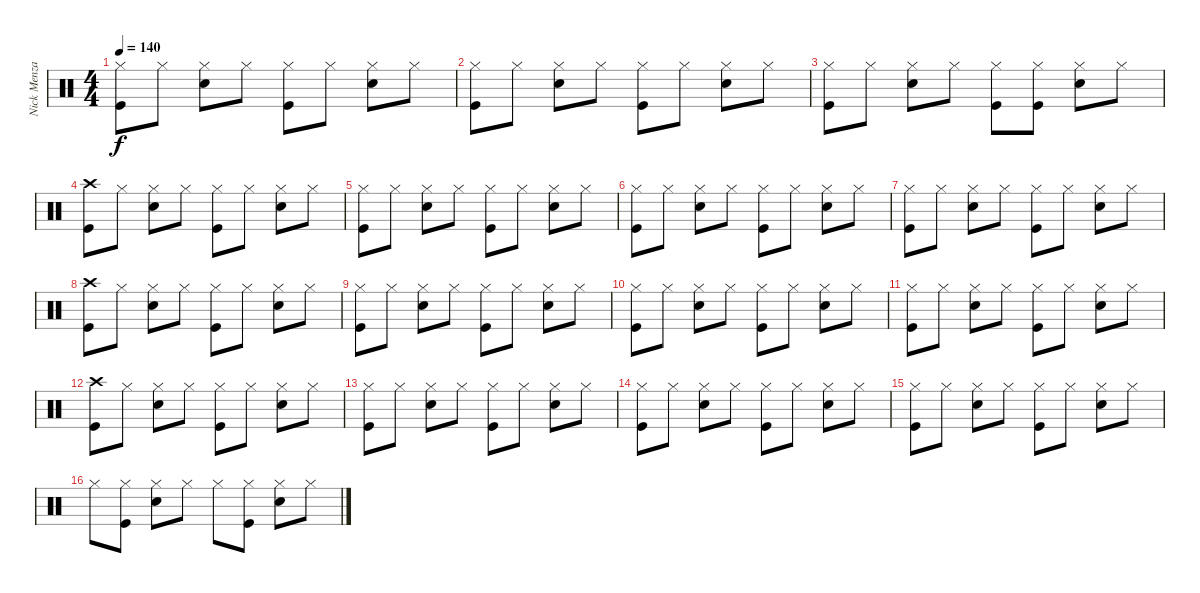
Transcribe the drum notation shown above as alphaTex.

\track ("Nick Menza (Drums)" "Nick Menza") {instrument percussion}
\staff {score}
\articulation defaults
\ts (4 4)
\tempo 140
\clef neutral
\ks c
("Hi-Hat (closed)" "Kick (hit)").8{dy f} "Hi-Hat (closed)".8 ("Hi-Hat (closed)" "Snare (hit) 2").8 "Hi-Hat (closed)".8 ("Hi-Hat (closed)" "Kick (hit)").8 "Hi-Hat (closed)".8 ("Hi-Hat (closed)" "Snare (hit) 2").8 "Hi-Hat (closed)".8 |
("Hi-Hat (closed)" "Kick (hit)").8 "Hi-Hat (closed)".8 ("Hi-Hat (closed)" "Snare (hit) 2").8 "Hi-Hat (closed)".8 ("Hi-Hat (closed)" "Kick (hit)").8 "Hi-Hat (closed)".8 ("Hi-Hat (closed)" "Snare (hit) 2").8 "Hi-Hat (closed)".8 |
("Hi-Hat (closed)" "Kick (hit)").8 "Hi-Hat (closed)".8 ("Hi-Hat (closed)" "Snare (hit) 2").8 "Hi-Hat (closed)".8 ("Hi-Hat (closed)" "Kick (hit)").8 ("Hi-Hat (closed)" "Kick (hit)").8 ("Hi-Hat (closed)" "Snare (hit) 2").8 "Hi-Hat (closed)".8 |
("Crash high (hit)" "Kick (hit)").8 "Hi-Hat (closed)".8 ("Hi-Hat (closed)" "Snare (hit) 2").8 "Hi-Hat (closed)".8 ("Hi-Hat (closed)" "Kick (hit)").8 "Hi-Hat (closed)".8 ("Hi-Hat (closed)" "Snare (hit) 2").8 "Hi-Hat (closed)".8 |
("Hi-Hat (closed)" "Kick (hit)").8 "Hi-Hat (closed)".8 ("Hi-Hat (closed)" "Snare (hit) 2").8 "Hi-Hat (closed)".8 ("Hi-Hat (closed)" "Kick (hit)").8 "Hi-Hat (closed)".8 ("Hi-Hat (closed)" "Snare (hit) 2").8 "Hi-Hat (closed)".8 |
("Hi-Hat (closed)" "Kick (hit)").8 "Hi-Hat (closed)".8 ("Hi-Hat (closed)" "Snare (hit) 2").8 "Hi-Hat (closed)".8 ("Hi-Hat (closed)" "Kick (hit)").8 "Hi-Hat (closed)".8 ("Hi-Hat (closed)" "Snare (hit) 2").8 "Hi-Hat (closed)".8 |
("Hi-Hat (closed)" "Kick (hit)").8 "Hi-Hat (closed)".8 ("Hi-Hat (closed)" "Snare (hit) 2").8 "Hi-Hat (closed)".8 ("Hi-Hat (closed)" "Kick (hit)").8 "Hi-Hat (closed)".8 ("Hi-Hat (closed)" "Snare (hit) 2").8 "Hi-Hat (closed)".8 |
("Crash high (hit)" "Kick (hit)").8 "Hi-Hat (closed)".8 ("Hi-Hat (closed)" "Snare (hit) 2").8 "Hi-Hat (closed)".8 ("Hi-Hat (closed)" "Kick (hit)").8 "Hi-Hat (closed)".8 ("Hi-Hat (closed)" "Snare (hit) 2").8 "Hi-Hat (closed)".8 |
("Hi-Hat (closed)" "Kick (hit)").8 "Hi-Hat (closed)".8 ("Hi-Hat (closed)" "Snare (hit) 2").8 "Hi-Hat (closed)".8 ("Hi-Hat (closed)" "Kick (hit)").8 "Hi-Hat (closed)".8 ("Hi-Hat (closed)" "Snare (hit) 2").8 "Hi-Hat (closed)".8 |
("Hi-Hat (closed)" "Kick (hit)").8 "Hi-Hat (closed)".8 ("Hi-Hat (closed)" "Snare (hit) 2").8 "Hi-Hat (closed)".8 ("Hi-Hat (closed)" "Kick (hit)").8 "Hi-Hat (closed)".8 ("Hi-Hat (closed)" "Snare (hit) 2").8 "Hi-Hat (closed)".8 |
("Hi-Hat (closed)" "Kick (hit)").8 "Hi-Hat (closed)".8 ("Hi-Hat (closed)" "Snare (hit) 2").8 "Hi-Hat (closed)".8 ("Hi-Hat (closed)" "Kick (hit)").8 "Hi-Hat (closed)".8 ("Hi-Hat (closed)" "Snare (hit) 2").8 "Hi-Hat (closed)".8 |
("Crash high (hit)" "Kick (hit)").8 "Hi-Hat (closed)".8 ("Hi-Hat (closed)" "Snare (hit) 2").8 "Hi-Hat (closed)".8 ("Hi-Hat (closed)" "Kick (hit)").8 "Hi-Hat (closed)".8 ("Hi-Hat (closed)" "Snare (hit) 2").8 "Hi-Hat (closed)".8 |
("Hi-Hat (closed)" "Kick (hit)").8 "Hi-Hat (closed)".8 ("Hi-Hat (closed)" "Snare (hit) 2").8 "Hi-Hat (closed)".8 ("Hi-Hat (closed)" "Kick (hit)").8 "Hi-Hat (closed)".8 ("Hi-Hat (closed)" "Snare (hit) 2").8 "Hi-Hat (closed)".8 |
("Hi-Hat (closed)" "Kick (hit)").8 "Hi-Hat (closed)".8 ("Hi-Hat (closed)" "Snare (hit) 2").8 "Hi-Hat (closed)".8 ("Hi-Hat (closed)" "Kick (hit)").8 "Hi-Hat (closed)".8 ("Hi-Hat (closed)" "Snare (hit) 2").8 "Hi-Hat (closed)".8 |
("Hi-Hat (closed)" "Kick (hit)").8 "Hi-Hat (closed)".8 ("Hi-Hat (closed)" "Snare (hit) 2").8 "Hi-Hat (closed)".8 ("Hi-Hat (closed)" "Kick (hit)").8 "Hi-Hat (closed)".8 ("Hi-Hat (closed)" "Snare (hit) 2").8 "Hi-Hat (closed)".8 |
"Hi-Hat (closed)".8 ("Hi-Hat (closed)" "Kick (hit)").8 ("Hi-Hat (closed)" "Snare (hit) 2").8 "Hi-Hat (closed)".8 "Hi-Hat (closed)".8 ("Hi-Hat (closed)" "Kick (hit)").8 ("Hi-Hat (closed)" "Snare (hit) 2").8 "Hi-Hat (closed)".8
